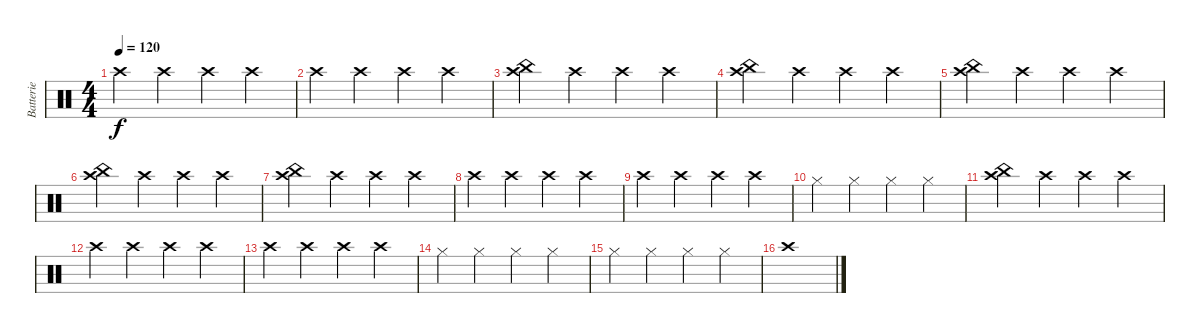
\track ("Batterie" "Batterie") {instrument percussion}
\staff {score}
\articulation defaults
\ts (4 4)
\tempo 120
\clef neutral
\ks c "Crash high (hit)".4{dy f} "Crash high (hit)".4 "Crash high (hit)".4 "Crash high (hit)".4
|
"Crash high (hit)".4 "Crash high (hit)".4 "Crash high (hit)".4 "Crash high (hit)".4 |
("China (hit)" "Crash high (hit)").4 "Crash high (hit)".4 "Crash high (hit)".4 "Crash high (hit)".4 |
("China (hit)" "Crash high (hit)").4 "Crash high (hit)".4 "Crash high (hit)".4 "Crash high (hit)".4 |
("China (hit)" "Crash high (hit)").4 "Crash high (hit)".4 "Crash high (hit)".4 "Crash high (hit)".4 |
("China (hit)" "Crash high (hit)").4 "Crash high (hit)".4 "Crash high (hit)".4 "Crash high (hit)".4 |
("China (hit)" "Crash high (hit)").4 "Crash high (hit)".4 "Crash high (hit)".4 "Crash high (hit)".4 |
"Crash high (hit)".4 "Crash high (hit)".4 "Crash high (hit)".4 "Crash high (hit)".4 |
"Crash high (hit)".4 "Crash high (hit)".4 "Crash high (hit)".4 "Crash high (hit)".4 |
"Hi-Hat (closed)".4 "Hi-Hat (closed)".4 "Hi-Hat (closed)".4 "Hi-Hat (closed)".4 |
("China (hit)" "Crash high (hit)").4 "Crash high (hit)".4 "Crash high (hit)".4 "Crash high (hit)".4 |
"Crash high (hit)".4 "Crash high (hit)".4 "Crash high (hit)".4 "Crash high (hit)".4 |
"Crash high (hit)".4 "Crash high (hit)".4 "Crash high (hit)".4 "Crash high (hit)".4 |
"Hi-Hat (closed)".4 "Hi-Hat (closed)".4 "Hi-Hat (closed)".4 "Hi-Hat (closed)".4 |
"Hi-Hat (closed)".4 "Hi-Hat (closed)".4 "Hi-Hat (closed)".4 "Hi-Hat (closed)".4 |
"Crash high (hit)".1
